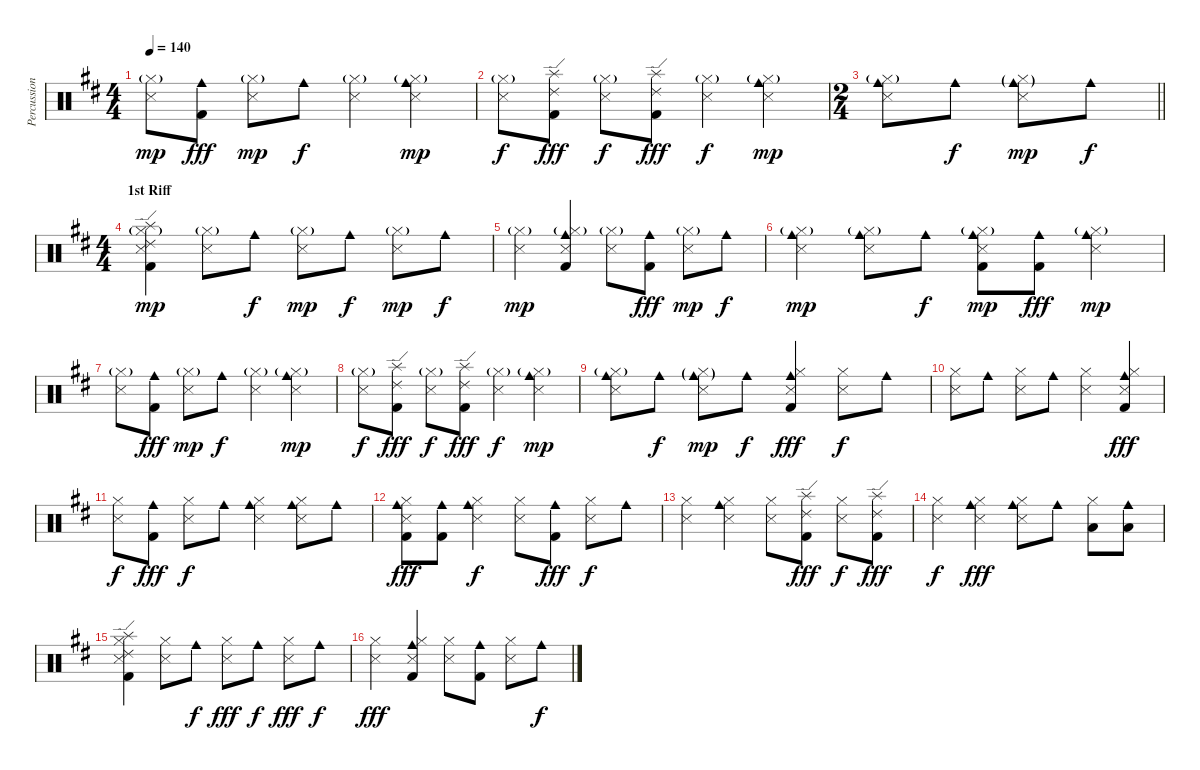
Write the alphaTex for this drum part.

\track ("Percussions" "Percussion") {instrument percussion}
\staff {score}
\articulation defaults
\ts (4 4)
\tempo 140
\clef neutral
\ks d
("Snare (side stick) 3" "Hi-Hat (closed)"{g}).8{dy mp} ("Cowbell medium (hit)" "Kick (hit) 2").8{dy fff} ("Snare (side stick) 3" "Hi-Hat (closed)"{g}).8{dy mp} "Cowbell medium (hit)".8{dy f} ("Snare (side stick) 3" "Hi-Hat (closed)"{g}).4 ("Cowbell medium (hit)" "Snare (side stick) 3" "Hi-Hat (closed)"{g}).4{dy mp} |
("Snare (side stick) 3" "Hi-Hat (closed)"{g}).8{dy f} ("Ride (edge) 2" "Splash (hit)" "Kick (hit) 2").8{dy fff} ("Snare (side stick) 3" "Hi-Hat (closed)"{g}).8{dy f} ("Ride (edge) 2" "Splash (hit)" "Kick (hit) 2").8{dy fff} ("Snare (side stick) 3" "Hi-Hat (closed)"{g}).4{dy f} ("Cowbell medium (hit)" "Snare (side stick) 3" "Hi-Hat (closed)"{g}).4{dy mp} |
\ts (2 4)
\barLineRight lightlight
("Cowbell medium (hit)" "Snare (side stick) 3" "Hi-Hat (closed)"{g}).8 "Cowbell medium (hit)".8{dy f} ("Cowbell medium (hit)"{g} "Snare (side stick) 3" "Hi-Hat (closed)"{g}).8{dy mp} "Cowbell medium (hit)".8{dy f} |
\ts (4 4)
\section ("" "1st Riff")
("Splash (hit)" "Ride (edge) 2" "Snare (side stick) 3" "Kick (hit) 2" "Hi-Hat (closed)"{g}).4{dy mp} ("Snare (side stick) 3" "Hi-Hat (closed)"{g}).8 "Cowbell medium (hit)".8{dy f} ("Snare (side stick) 3" "Hi-Hat (closed)"{g}).8{dy mp} "Cowbell medium (hit)".8{dy f} ("Snare (side stick) 3" "Hi-Hat (closed)"{g}).8{dy mp} "Cowbell medium (hit)".8{dy f} |
("Snare (side stick) 3" "Hi-Hat (closed)"{g}).4{dy mp} ("Cowbell medium (hit)" "Snare (side stick) 3" "Kick (hit) 2" "Hi-Hat (closed)"{g}).4 ("Snare (side stick) 3" "Hi-Hat (closed)"{g}).8 ("Cowbell medium (hit)" "Kick (hit) 2").8{dy fff} ("Snare (side stick) 3" "Hi-Hat (closed)"{g}).8{dy mp} "Cowbell medium (hit)".8{dy f} |
("Cowbell medium (hit)" "Snare (side stick) 3" "Hi-Hat (closed)"{g}).4{dy mp} ("Cowbell medium (hit)" "Snare (side stick) 3" "Hi-Hat (closed)"{g}).8 "Cowbell medium (hit)".8{dy f} ("Cowbell medium (hit)" "Snare (side stick) 3" "Kick (hit) 2" "Hi-Hat (closed)"{g}).8{dy mp} ("Cowbell medium (hit)" "Kick (hit) 2").8{dy fff} ("Cowbell medium (hit)" "Snare (side stick) 3" "Hi-Hat (closed)"{g}).4{dy mp} |
("Snare (side stick) 3" "Hi-Hat (closed)"{g}).8 ("Cowbell medium (hit)" "Kick (hit) 2").8{dy fff} ("Snare (side stick) 3" "Hi-Hat (closed)"{g}).8{dy mp} "Cowbell medium (hit)".8{dy f} ("Snare (side stick) 3" "Hi-Hat (closed)"{g}).4 ("Cowbell medium (hit)" "Snare (side stick) 3" "Hi-Hat (closed)"{g}).4{dy mp} |
("Snare (side stick) 3" "Hi-Hat (closed)"{g}).8{dy f} ("Ride (edge) 2" "Splash (hit)" "Kick (hit) 2").8{dy fff} ("Snare (side stick) 3" "Hi-Hat (closed)"{g}).8{dy f} ("Ride (edge) 2" "Splash (hit)" "Kick (hit) 2").8{dy fff} ("Snare (side stick) 3" "Hi-Hat (closed)"{g}).4{dy f} ("Cowbell medium (hit)" "Snare (side stick) 3" "Hi-Hat (closed)"{g}).4{dy mp} |
("Cowbell medium (hit)" "Snare (side stick) 3" "Hi-Hat (closed)"{g}).8 "Cowbell medium (hit)".8{dy f} ("Cowbell medium (hit)"{g} "Snare (side stick) 3" "Hi-Hat (closed)"{g}).8{dy mp} "Cowbell medium (hit)".8{dy f} ("Cowbell medium (hit)" "Snare (side stick) 3" "Kick (hit) 2" "Hi-Hat (closed)").4{dy fff} ("Snare (side stick) 3" "Hi-Hat (closed)").8{dy f} "Cowbell medium (hit)".8 |
("Snare (side stick) 3" "Hi-Hat (closed)").8 "Cowbell medium (hit)".8 ("Snare (side stick) 3" "Hi-Hat (closed)").8 "Cowbell medium (hit)".8 ("Snare (side stick) 3" "Hi-Hat (closed)").4 ("Cowbell medium (hit)" "Snare (side stick) 3" "Kick (hit) 2" "Hi-Hat (closed)").4{dy fff} |
("Snare (side stick) 3" "Hi-Hat (closed)").8{dy f} ("Cowbell medium (hit)" "Kick (hit) 2").8{dy fff} ("Snare (side stick) 3" "Hi-Hat (closed)").8{dy f} "Cowbell medium (hit)".8 ("Cowbell medium (hit)" "Snare (side stick) 3" "Hi-Hat (closed)").4 ("Cowbell medium (hit)" "Snare (side stick) 3" "Hi-Hat (closed)").8 "Cowbell medium (hit)".8 |
("Cowbell medium (hit)" "Snare (side stick) 3" "Kick (hit) 2" "Hi-Hat (closed)").8{dy fff} ("Cowbell medium (hit)" "Kick (hit) 2").8 ("Cowbell medium (hit)" "Snare (side stick) 3" "Hi-Hat (closed)").4{dy f} ("Snare (side stick) 3" "Hi-Hat (closed)").8 ("Cowbell medium (hit)" "Kick (hit) 2").8{dy fff} ("Snare (side stick) 3" "Hi-Hat (closed)").8{dy f} "Cowbell medium (hit)".8 |
("Snare (side stick) 3" "Hi-Hat (closed)").4 ("Cowbell medium (hit)" "Snare (side stick) 3" "Hi-Hat (closed)").4 ("Snare (side stick) 3" "Hi-Hat (closed)").8 ("Ride (edge) 2" "Splash (hit)" "Kick (hit) 2").8{dy fff} ("Snare (side stick) 3" "Hi-Hat (closed)").8{dy f} ("Ride (edge) 2" "Splash (hit)" "Kick (hit) 2").8{dy fff} |
("Snare (side stick) 3" "Hi-Hat (closed)").4{dy f} ("Cowbell medium (hit)" "Snare (side stick) 3" "Hi-Hat (closed)").4{dy fff} ("Cowbell medium (hit)" "Snare (side stick) 3" "Hi-Hat (closed)").8 "Cowbell medium (hit)".8 ("Low Tom (hit)" "Hi-Hat (closed)").8 ("Cowbell medium (hit)" "Low Tom (hit)").8 |
("Splash (hit)" "Ride (edge) 2" "Snare (side stick) 3" "Kick (hit) 2" "Hi-Hat (closed)").4 ("Snare (side stick) 3" "Hi-Hat (closed)").8 "Cowbell medium (hit)".8{dy f} ("Snare (side stick) 3" "Hi-Hat (closed)").8{dy fff} "Cowbell medium (hit)".8{dy f} ("Snare (side stick) 3" "Hi-Hat (closed)").8{dy fff} "Cowbell medium (hit)".8{dy f} |
("Snare (side stick) 3" "Hi-Hat (closed)").4{dy fff} ("Cowbell medium (hit)" "Snare (side stick) 3" "Kick (hit) 2" "Hi-Hat (closed)").4 ("Snare (side stick) 3" "Hi-Hat (closed)").8 ("Cowbell medium (hit)" "Kick (hit) 2").8 ("Snare (side stick) 3" "Hi-Hat (closed)").8 "Cowbell medium (hit)".8{dy f}
